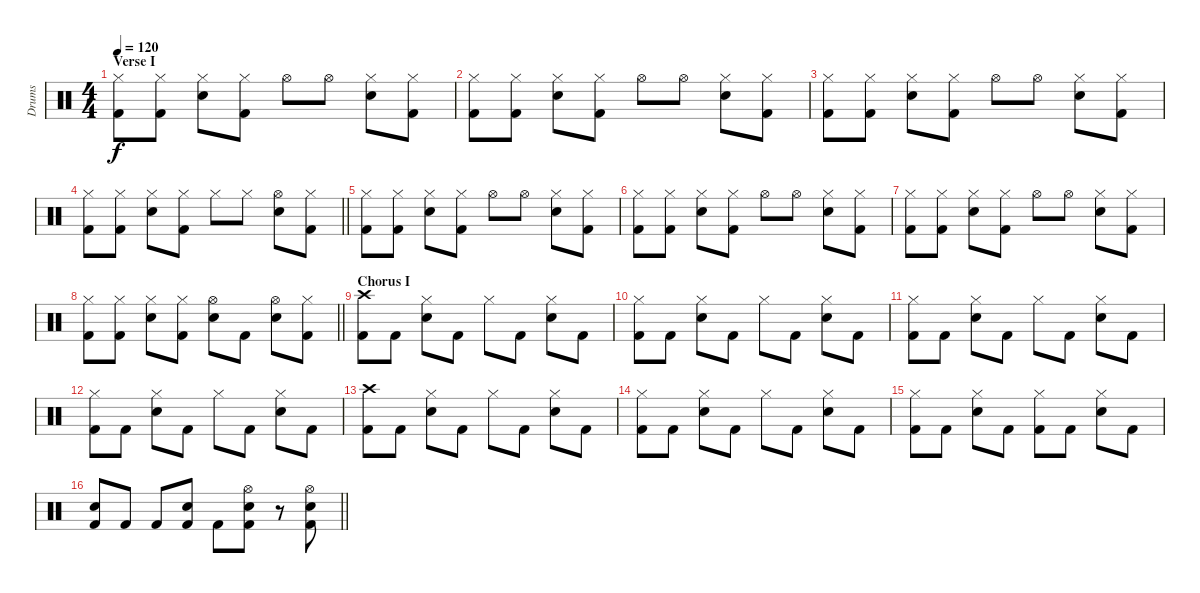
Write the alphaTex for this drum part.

\track ("Drums" "Drums") {instrument percussion}
\staff {score}
\articulation defaults
\ts (4 4)
\section ("" "Verse I")
\tempo 120
\clef neutral
\ks c
("Hi-Hat (closed)" "Kick (hit) 2").8{dy f} ("Hi-Hat (closed)" "Kick (hit) 2").8 ("Hi-Hat (closed)" "Electric Snare (hit)").8 ("Hi-Hat (closed)" "Kick (hit) 2").8 "Hi-Hat (open)".8 "Hi-Hat (open)".8 ("Hi-Hat (closed)" "Electric Snare (hit)").8 ("Hi-Hat (closed)" "Kick (hit) 2").8 |
("Hi-Hat (closed)" "Kick (hit) 2").8 ("Hi-Hat (closed)" "Kick (hit) 2").8 ("Hi-Hat (closed)" "Electric Snare (hit)").8 ("Hi-Hat (closed)" "Kick (hit) 2").8 "Hi-Hat (open)".8 "Hi-Hat (open)".8 ("Hi-Hat (closed)" "Electric Snare (hit)").8 ("Hi-Hat (closed)" "Kick (hit) 2").8 |
("Hi-Hat (closed)" "Kick (hit) 2").8 ("Hi-Hat (closed)" "Kick (hit) 2").8 ("Hi-Hat (closed)" "Electric Snare (hit)").8 ("Hi-Hat (closed)" "Kick (hit) 2").8 "Hi-Hat (open)".8 "Hi-Hat (open)".8 ("Hi-Hat (closed)" "Electric Snare (hit)").8 ("Hi-Hat (closed)" "Kick (hit) 2").8 |
\barLineRight lightlight
("Hi-Hat (closed)" "Kick (hit) 2").8 ("Hi-Hat (closed)" "Kick (hit) 2").8 ("Hi-Hat (closed)" "Electric Snare (hit)").8 ("Hi-Hat (closed)" "Kick (hit) 2").8 "Hi-Hat (closed)".8 "Hi-Hat (closed)".8 ("Hi-Hat (open)" "Electric Snare (hit)").8 ("Hi-Hat (closed)" "Kick (hit) 2").8 |
("Hi-Hat (closed)" "Kick (hit) 2").8 ("Hi-Hat (closed)" "Kick (hit) 2").8 ("Hi-Hat (closed)" "Electric Snare (hit)").8 ("Hi-Hat (closed)" "Kick (hit) 2").8 "Hi-Hat (open)".8 "Hi-Hat (open)".8 ("Hi-Hat (closed)" "Electric Snare (hit)").8 ("Hi-Hat (closed)" "Kick (hit) 2").8 |
("Hi-Hat (closed)" "Kick (hit) 2").8 ("Hi-Hat (closed)" "Kick (hit) 2").8 ("Hi-Hat (closed)" "Electric Snare (hit)").8 ("Hi-Hat (closed)" "Kick (hit) 2").8 "Hi-Hat (open)".8 "Hi-Hat (open)".8 ("Hi-Hat (closed)" "Electric Snare (hit)").8 ("Hi-Hat (closed)" "Kick (hit) 2").8 |
("Hi-Hat (closed)" "Kick (hit) 2").8 ("Hi-Hat (closed)" "Kick (hit) 2").8 ("Hi-Hat (closed)" "Electric Snare (hit)").8 ("Hi-Hat (closed)" "Kick (hit) 2").8 "Hi-Hat (open)".8 "Hi-Hat (open)".8 ("Hi-Hat (closed)" "Electric Snare (hit)").8 ("Hi-Hat (closed)" "Kick (hit) 2").8 |
\barLineRight lightlight
("Hi-Hat (closed)" "Kick (hit) 2").8 ("Hi-Hat (closed)" "Kick (hit) 2").8 ("Hi-Hat (closed)" "Electric Snare (hit)").8 ("Hi-Hat (closed)" "Kick (hit) 2").8 ("Hi-Hat (open)" "Electric Snare (hit)").8 "Kick (hit) 2".8 ("Hi-Hat (open)" "Electric Snare (hit)").8 ("Hi-Hat (closed)" "Kick (hit) 2").8 |
\section ("" "Chorus I")
("Crash high (hit)" "Kick (hit) 2").8 "Kick (hit) 2".8 ("Hi-Hat (closed)" "Electric Snare (hit)").8 "Kick (hit) 2".8 "Hi-Hat (closed)".8 "Kick (hit) 2".8 ("Hi-Hat (closed)" "Electric Snare (hit)").8 "Kick (hit) 2".8 |
("Hi-Hat (closed)" "Kick (hit) 2").8 "Kick (hit) 2".8 ("Hi-Hat (closed)" "Electric Snare (hit)").8 "Kick (hit) 2".8 "Hi-Hat (closed)".8 "Kick (hit) 2".8 ("Hi-Hat (closed)" "Electric Snare (hit)").8 "Kick (hit) 2".8 |
("Hi-Hat (closed)" "Kick (hit) 2").8 "Kick (hit) 2".8 ("Hi-Hat (closed)" "Electric Snare (hit)").8 "Kick (hit) 2".8 "Hi-Hat (closed)".8 "Kick (hit) 2".8 ("Hi-Hat (closed)" "Electric Snare (hit)").8 "Kick (hit) 2".8 |
("Hi-Hat (closed)" "Kick (hit) 2").8 "Kick (hit) 2".8 ("Hi-Hat (closed)" "Electric Snare (hit)").8 "Kick (hit) 2".8 "Hi-Hat (closed)".8 "Kick (hit) 2".8 ("Hi-Hat (closed)" "Electric Snare (hit)").8 "Kick (hit) 2".8 |
("Crash high (hit)" "Kick (hit) 2").8 "Kick (hit) 2".8 ("Hi-Hat (closed)" "Electric Snare (hit)").8 "Kick (hit) 2".8 "Hi-Hat (closed)".8 "Kick (hit) 2".8 ("Hi-Hat (closed)" "Electric Snare (hit)").8 "Kick (hit) 2".8 |
("Hi-Hat (closed)" "Kick (hit) 2").8 "Kick (hit) 2".8 ("Hi-Hat (closed)" "Electric Snare (hit)").8 "Kick (hit) 2".8 "Hi-Hat (closed)".8 "Kick (hit) 2".8 ("Hi-Hat (closed)" "Electric Snare (hit)").8 "Kick (hit) 2".8 |
("Hi-Hat (closed)" "Kick (hit) 2").8 "Kick (hit) 2".8 ("Hi-Hat (closed)" "Electric Snare (hit)").8 "Kick (hit) 2".8 ("Hi-Hat (closed)" "Kick (hit) 2").8 "Kick (hit) 2".8 ("Hi-Hat (closed)" "Electric Snare (hit)").8 "Kick (hit) 2".8 |
\barLineRight lightlight
("Electric Snare (hit)" "Kick (hit) 2").8 "Kick (hit) 2".8 "Kick (hit) 2".8 ("Electric Snare (hit)" "Kick (hit) 2").8 "Kick (hit) 2".8 ("Hi-Hat (open)" "Electric Snare (hit)" "Kick (hit) 2").8 r.8 ("Hi-Hat (open)" "Electric Snare (hit)" "Kick (hit) 2").8
